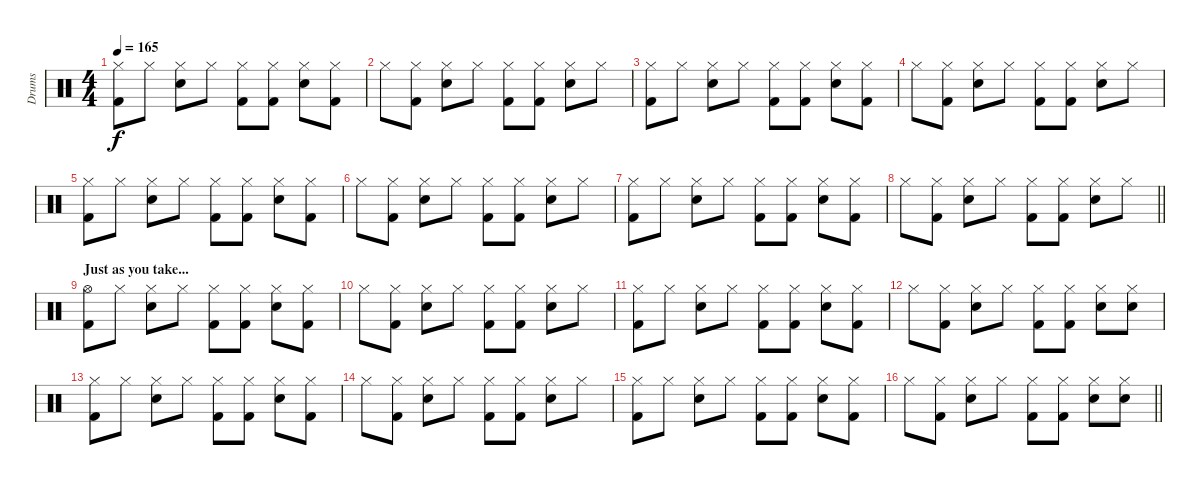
\track ("Drums" "Drums") {instrument percussion}
\staff {score}
\articulation defaults
\ts (4 4)
\tempo 165
\clef neutral
\ks c
("Hi-Hat (closed)" "Kick (hit) 2").8{dy f} "Hi-Hat (closed)".8 ("Hi-Hat (closed)" "Electric Snare (hit)").8 "Hi-Hat (closed)".8 ("Hi-Hat (closed)" "Kick (hit) 2").8 ("Hi-Hat (closed)" "Kick (hit) 2").8 ("Hi-Hat (closed)" "Electric Snare (hit)").8 ("Hi-Hat (closed)" "Kick (hit) 2").8 |
"Hi-Hat (closed)".8 ("Hi-Hat (closed)" "Kick (hit) 2").8 ("Hi-Hat (closed)" "Electric Snare (hit)").8 "Hi-Hat (closed)".8 ("Hi-Hat (closed)" "Kick (hit) 2").8 ("Hi-Hat (closed)" "Kick (hit) 2").8 ("Hi-Hat (closed)" "Electric Snare (hit)").8 "Hi-Hat (closed)".8 |
("Hi-Hat (closed)" "Kick (hit) 2").8 "Hi-Hat (closed)".8 ("Hi-Hat (closed)" "Electric Snare (hit)").8 "Hi-Hat (closed)".8 ("Hi-Hat (closed)" "Kick (hit) 2").8 ("Hi-Hat (closed)" "Kick (hit) 2").8 ("Hi-Hat (closed)" "Electric Snare (hit)").8 ("Hi-Hat (closed)" "Kick (hit) 2").8 |
"Hi-Hat (closed)".8 ("Hi-Hat (closed)" "Kick (hit) 2").8 ("Hi-Hat (closed)" "Electric Snare (hit)").8 "Hi-Hat (closed)".8 ("Hi-Hat (closed)" "Kick (hit) 2").8 ("Hi-Hat (closed)" "Kick (hit) 2").8 ("Hi-Hat (closed)" "Electric Snare (hit)").8 "Hi-Hat (closed)".8 |
("Hi-Hat (closed)" "Kick (hit) 2").8 "Hi-Hat (closed)".8 ("Hi-Hat (closed)" "Electric Snare (hit)").8 "Hi-Hat (closed)".8 ("Hi-Hat (closed)" "Kick (hit) 2").8 ("Hi-Hat (closed)" "Kick (hit) 2").8 ("Hi-Hat (closed)" "Electric Snare (hit)").8 ("Hi-Hat (closed)" "Kick (hit) 2").8 |
"Hi-Hat (closed)".8 ("Hi-Hat (closed)" "Kick (hit) 2").8 ("Hi-Hat (closed)" "Electric Snare (hit)").8 "Hi-Hat (closed)".8 ("Hi-Hat (closed)" "Kick (hit) 2").8 ("Hi-Hat (closed)" "Kick (hit) 2").8 ("Hi-Hat (closed)" "Electric Snare (hit)").8 "Hi-Hat (closed)".8 |
("Hi-Hat (closed)" "Kick (hit) 2").8 "Hi-Hat (closed)".8 ("Hi-Hat (closed)" "Electric Snare (hit)").8 "Hi-Hat (closed)".8 ("Hi-Hat (closed)" "Kick (hit) 2").8 ("Hi-Hat (closed)" "Kick (hit) 2").8 ("Hi-Hat (closed)" "Electric Snare (hit)").8 ("Hi-Hat (closed)" "Kick (hit) 2").8 |
\barLineRight lightlight "Hi-Hat (closed)".8
("Hi-Hat (closed)" "Kick (hit) 2").8 ("Hi-Hat (closed)" "Electric Snare (hit)").8 "Hi-Hat (closed)".8 ("Hi-Hat (closed)" "Kick (hit) 2").8 ("Hi-Hat (closed)" "Kick (hit) 2").8 ("Hi-Hat (closed)" "Electric Snare (hit)").8 "Hi-Hat (closed)".8 |
\section ("" "Just as you take...")
("Hi-Hat (open)" "Kick (hit) 2").8 "Hi-Hat (closed)".8 ("Hi-Hat (closed)" "Electric Snare (hit)").8 "Hi-Hat (closed)".8 ("Hi-Hat (closed)" "Kick (hit) 2").8 ("Hi-Hat (closed)" "Kick (hit) 2").8 ("Hi-Hat (closed)" "Electric Snare (hit)").8 ("Hi-Hat (closed)" "Kick (hit) 2").8 |
"Hi-Hat (closed)".8 ("Hi-Hat (closed)" "Kick (hit) 2").8 ("Hi-Hat (closed)" "Electric Snare (hit)").8 "Hi-Hat (closed)".8 ("Hi-Hat (closed)" "Kick (hit) 2").8 ("Hi-Hat (closed)" "Kick (hit) 2").8 ("Hi-Hat (closed)" "Electric Snare (hit)").8 "Hi-Hat (closed)".8 |
("Hi-Hat (closed)" "Kick (hit) 2").8 "Hi-Hat (closed)".8 ("Hi-Hat (closed)" "Electric Snare (hit)").8 "Hi-Hat (closed)".8 ("Hi-Hat (closed)" "Kick (hit) 2").8 ("Hi-Hat (closed)" "Kick (hit) 2").8 ("Hi-Hat (closed)" "Electric Snare (hit)").8 ("Hi-Hat (closed)" "Kick (hit) 2").8 |
"Hi-Hat (closed)".8 ("Hi-Hat (closed)" "Kick (hit) 2").8 ("Hi-Hat (closed)" "Electric Snare (hit)").8 "Hi-Hat (closed)".8 ("Hi-Hat (closed)" "Kick (hit) 2").8 ("Hi-Hat (closed)" "Kick (hit) 2").8 ("Hi-Hat (closed)" "Electric Snare (hit)").8 ("Hi-Hat (closed)" "Electric Snare (hit)").8 |
("Hi-Hat (closed)" "Kick (hit) 2").8 "Hi-Hat (closed)".8 ("Hi-Hat (closed)" "Electric Snare (hit)").8 "Hi-Hat (closed)".8 ("Hi-Hat (closed)" "Kick (hit) 2").8 ("Hi-Hat (closed)" "Kick (hit) 2").8 ("Hi-Hat (closed)" "Electric Snare (hit)").8 ("Hi-Hat (closed)" "Kick (hit) 2").8 |
"Hi-Hat (closed)".8 ("Hi-Hat (closed)" "Kick (hit) 2").8 ("Hi-Hat (closed)" "Electric Snare (hit)").8 "Hi-Hat (closed)".8 ("Hi-Hat (closed)" "Kick (hit) 2").8 ("Hi-Hat (closed)" "Kick (hit) 2").8 ("Hi-Hat (closed)" "Electric Snare (hit)").8 "Hi-Hat (closed)".8 |
("Hi-Hat (closed)" "Kick (hit) 2").8 "Hi-Hat (closed)".8 ("Hi-Hat (closed)" "Electric Snare (hit)").8 "Hi-Hat (closed)".8 ("Hi-Hat (closed)" "Kick (hit) 2").8 ("Hi-Hat (closed)" "Kick (hit) 2").8 ("Hi-Hat (closed)" "Electric Snare (hit)").8 ("Hi-Hat (closed)" "Kick (hit) 2").8 |
\barLineRight lightlight "Hi-Hat (closed)".8
("Hi-Hat (closed)" "Kick (hit) 2").8 ("Hi-Hat (closed)" "Electric Snare (hit)").8 "Hi-Hat (closed)".8 ("Hi-Hat (closed)" "Kick (hit) 2").8 ("Hi-Hat (closed)" "Kick (hit) 2").8 ("Hi-Hat (closed)" "Electric Snare (hit)").8 ("Hi-Hat (closed)" "Electric Snare (hit)").8
